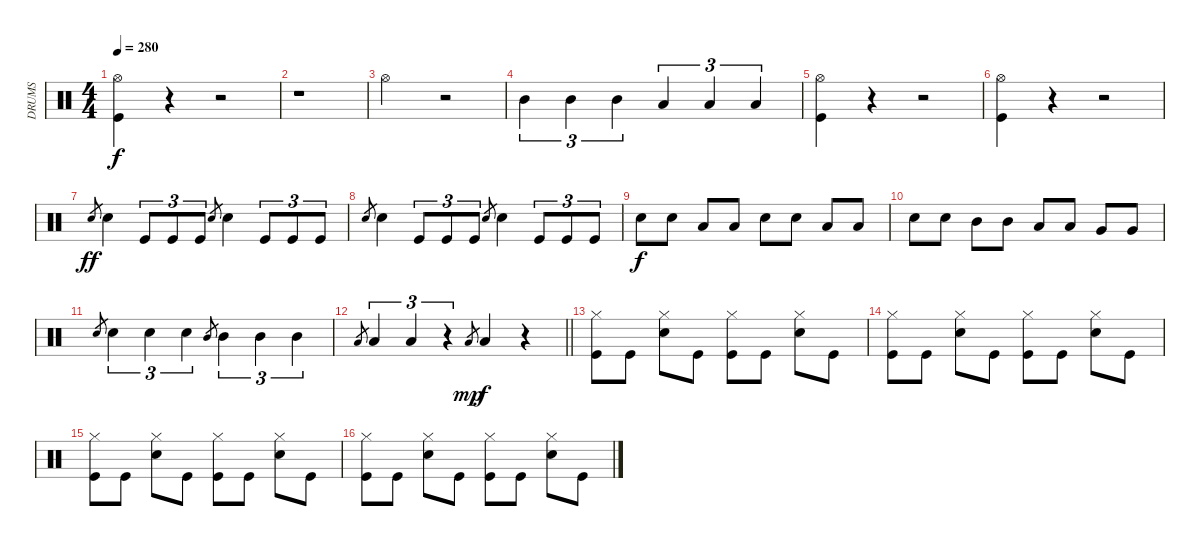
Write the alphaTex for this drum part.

\track ("DRUMS" "DRUMS") {instrument percussion}
\staff {score}
\articulation defaults
\ts (4 4)
\tempo 280
\clef neutral
\ks c
("Hi-Hat (open)" "Kick (hit)").4{dy f} r.4 r.2 |
r.1 |
"Hi-Hat (open)".2 r.2 |
"Mid Tom (hit)".4{tu (3 2)} "Mid Tom (hit)".4{tu (3 2)} "Mid Tom (hit)".4{tu (3 2)} "Low Tom (hit)".4{tu (3 2)} "Low Tom (hit)".4{tu (3 2)} "Low Tom (hit)".4{tu (3 2)} |
("Hi-Hat (open)" "Kick (hit)").4 r.4 r.2 |
("Hi-Hat (open)" "Kick (hit)").4 r.4 r.2 |
"Snare (hit) 2".8{gr dy ff} "Snare (hit) 2".4 "Kick (hit)".8{tu (3 2)} "Kick (hit)".8{tu (3 2)} "Kick (hit)".8{tu (3 2)} "Snare (hit) 2".8{gr} "Snare (hit) 2".4 "Kick (hit)".8{tu (3 2)} "Kick (hit)".8{tu (3 2)} "Kick (hit)".8{tu (3 2)} |
"Snare (hit) 2".8{gr} "Snare (hit) 2".4 "Kick (hit)".8{tu (3 2)} "Kick (hit)".8{tu (3 2)} "Kick (hit)".8{tu (3 2)} "Snare (hit) 2".8{gr} "Snare (hit) 2".4 "Kick (hit)".8{tu (3 2)} "Kick (hit)".8{tu (3 2)} "Kick (hit)".8{tu (3 2)} |
"Snare (hit) 2".8{dy f} "Snare (hit) 2".8 "Low Tom (hit)".8 "Low Tom (hit)".8 "Snare (hit) 2".8 "Snare (hit) 2".8 "Low Tom (hit)".8 "Low Tom (hit)".8 |
"Snare (hit) 2".8 "Snare (hit) 2".8 "Mid Tom (hit)".8 "Mid Tom (hit)".8 "Low Tom (hit)".8 "Low Tom (hit)".8 "Very Low Tom (hit)".8 "Very Low Tom (hit)".8 |
"Snare (hit) 2"{h}.8{gr} "Snare (hit) 2".4{tu (3 2)} "Snare (hit) 2".4{tu (3 2)} "Snare (hit) 2".4{tu (3 2)} "Mid Tom (hit)"{h}.8{gr} "Mid Tom (hit)".4{tu (3 2)} "Mid Tom (hit)".4{tu (3 2)} "Mid Tom (hit)".4{tu (3 2)} |
\barLineRight lightlight "Low Tom (hit)"{h}.8{gr} "Low Tom (hit)".4{tu (3 2)} "Low Tom (hit)".4{tu (3 2)}
r.4{tu (3 2)} "Low Tom (hit)"{h}.8{gr dy mp} "Low Tom (hit)".4{dy f} r.4 |
("Hi-Hat (closed)" "Kick (hit)").8 "Kick (hit)".8 ("Hi-Hat (closed)" "Snare (hit) 2").8 "Kick (hit)".8 ("Hi-Hat (closed)" "Kick (hit)").8 "Kick (hit)".8 ("Hi-Hat (closed)" "Snare (hit) 2").8 "Kick (hit)".8 |
("Hi-Hat (closed)" "Kick (hit)").8 "Kick (hit)".8 ("Hi-Hat (closed)" "Snare (hit) 2").8 "Kick (hit)".8 ("Hi-Hat (closed)" "Kick (hit)").8 "Kick (hit)".8 ("Hi-Hat (closed)" "Snare (hit) 2").8 "Kick (hit)".8 |
("Hi-Hat (closed)" "Kick (hit)").8 "Kick (hit)".8 ("Hi-Hat (closed)" "Snare (hit) 2").8 "Kick (hit)".8 ("Hi-Hat (closed)" "Kick (hit)").8 "Kick (hit)".8 ("Hi-Hat (closed)" "Snare (hit) 2").8 "Kick (hit)".8 |
("Hi-Hat (closed)" "Kick (hit)").8 "Kick (hit)".8 ("Hi-Hat (closed)" "Snare (hit) 2").8 "Kick (hit)".8 ("Hi-Hat (closed)" "Kick (hit)").8 "Kick (hit)".8 ("Hi-Hat (closed)" "Snare (hit) 2").8 "Kick (hit)".8
